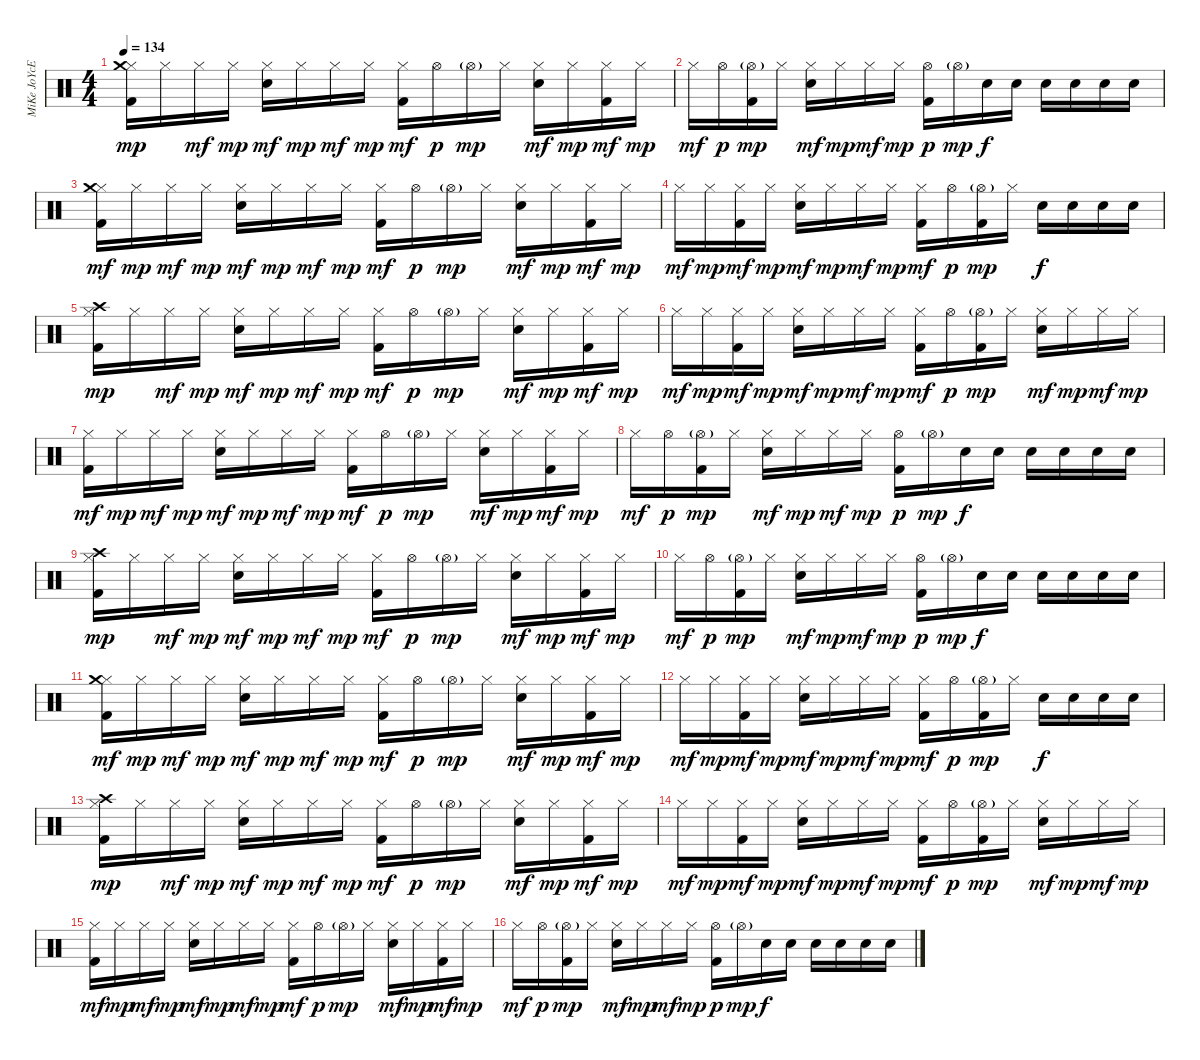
\track ("MiKe JoYcE" "MiKe JoYcE") {instrument percussion}
\staff {score}
\articulation defaults
\ts (4 4)
\tempo 134
\clef neutral
\ks c
("Hi-Hat (closed)" "Crash medium (hit)" "Kick (hit) 2").16{dy mp} "Hi-Hat (closed)".16 "Hi-Hat (closed)".16{dy mf} "Hi-Hat (closed)".16{dy mp} ("Hi-Hat (closed)" "Electric Snare (hit)").16{dy mf} "Hi-Hat (closed)".16{dy mp} "Hi-Hat (closed)".16{dy mf} "Hi-Hat (closed)".16{dy mp} ("Hi-Hat (closed)" "Kick (hit) 2").16{dy mf} "Hi-Hat (open)".16{dy p} "Hi-Hat (open)"{g}.16{dy mp} "Hi-Hat (closed)".16 ("Hi-Hat (closed)" "Electric Snare (hit)").16{dy mf} "Hi-Hat (closed)".16{dy mp} ("Hi-Hat (closed)" "Kick (hit) 2").16{dy mf} "Hi-Hat (closed)".16{dy mp} |
"Hi-Hat (closed)".16{dy mf} "Hi-Hat (open)".16{dy p} ("Hi-Hat (open)"{g} "Kick (hit) 2").16{dy mp} "Hi-Hat (closed)".16 ("Hi-Hat (closed)" "Electric Snare (hit)").16{dy mf} "Hi-Hat (closed)".16{dy mp} "Hi-Hat (closed)".16{dy mf} "Hi-Hat (closed)".16{dy mp} ("Hi-Hat (open)" "Kick (hit) 2").16{dy p} "Hi-Hat (open)"{g}.16{dy mp} "Electric Snare (hit)".16{dy f} "Electric Snare (hit)".16 "Electric Snare (hit)".16 "Electric Snare (hit)".16 "Electric Snare (hit)".16 "Electric Snare (hit)".16 |
("Hi-Hat (closed)" "Crash medium (hit)" "Kick (hit) 2").16{dy mf} "Hi-Hat (closed)".16{dy mp} "Hi-Hat (closed)".16{dy mf} "Hi-Hat (closed)".16{dy mp} ("Hi-Hat (closed)" "Electric Snare (hit)").16{dy mf} "Hi-Hat (closed)".16{dy mp} "Hi-Hat (closed)".16{dy mf} "Hi-Hat (closed)".16{dy mp} ("Hi-Hat (closed)" "Kick (hit) 2").16{dy mf} "Hi-Hat (open)".16{dy p} "Hi-Hat (open)"{g}.16{dy mp} "Hi-Hat (closed)".16 ("Hi-Hat (closed)" "Electric Snare (hit)").16{dy mf} "Hi-Hat (closed)".16{dy mp} ("Hi-Hat (closed)" "Kick (hit) 2").16{dy mf} "Hi-Hat (closed)".16{dy mp} |
"Hi-Hat (closed)".16{dy mf} "Hi-Hat (closed)".16{dy mp} ("Hi-Hat (closed)" "Kick (hit) 2").16{dy mf} "Hi-Hat (closed)".16{dy mp} ("Hi-Hat (closed)" "Electric Snare (hit)").16{dy mf} "Hi-Hat (closed)".16{dy mp} "Hi-Hat (closed)".16{dy mf} "Hi-Hat (closed)".16{dy mp} ("Hi-Hat (closed)" "Kick (hit) 2").16{dy mf} "Hi-Hat (open)".16{dy p} ("Hi-Hat (open)"{g} "Kick (hit) 2").16{dy mp} "Hi-Hat (closed)".16 "Electric Snare (hit)".16{dy f} "Electric Snare (hit)".16 "Electric Snare (hit)".16 "Electric Snare (hit)".16 |
("Hi-Hat (closed)" "Crash high (hit)" "Kick (hit) 2").16{dy mp} "Hi-Hat (closed)".16 "Hi-Hat (closed)".16{dy mf} "Hi-Hat (closed)".16{dy mp} ("Hi-Hat (closed)" "Electric Snare (hit)").16{dy mf} "Hi-Hat (closed)".16{dy mp} "Hi-Hat (closed)".16{dy mf} "Hi-Hat (closed)".16{dy mp} ("Hi-Hat (closed)" "Kick (hit) 2").16{dy mf} "Hi-Hat (open)".16{dy p} "Hi-Hat (open)"{g}.16{dy mp} "Hi-Hat (closed)".16 ("Hi-Hat (closed)" "Electric Snare (hit)").16{dy mf} "Hi-Hat (closed)".16{dy mp} ("Hi-Hat (closed)" "Kick (hit) 2").16{dy mf} "Hi-Hat (closed)".16{dy mp} |
"Hi-Hat (closed)".16{dy mf} "Hi-Hat (closed)".16{dy mp} ("Hi-Hat (closed)" "Kick (hit) 2").16{dy mf} "Hi-Hat (closed)".16{dy mp} ("Hi-Hat (closed)" "Electric Snare (hit)").16{dy mf} "Hi-Hat (closed)".16{dy mp} "Hi-Hat (closed)".16{dy mf} "Hi-Hat (closed)".16{dy mp} ("Hi-Hat (closed)" "Kick (hit) 2").16{dy mf} "Hi-Hat (open)".16{dy p} ("Hi-Hat (open)"{g} "Kick (hit) 2").16{dy mp} "Hi-Hat (closed)".16 ("Hi-Hat (closed)" "Electric Snare (hit)").16{dy mf} "Hi-Hat (closed)".16{dy mp} "Hi-Hat (closed)".16{dy mf} "Hi-Hat (closed)".16{dy mp} |
("Hi-Hat (closed)" "Kick (hit) 2").16{dy mf} "Hi-Hat (closed)".16{dy mp} "Hi-Hat (closed)".16{dy mf} "Hi-Hat (closed)".16{dy mp} ("Hi-Hat (closed)" "Electric Snare (hit)").16{dy mf} "Hi-Hat (closed)".16{dy mp} "Hi-Hat (closed)".16{dy mf} "Hi-Hat (closed)".16{dy mp} ("Hi-Hat (closed)" "Kick (hit) 2").16{dy mf} "Hi-Hat (open)".16{dy p} "Hi-Hat (open)"{g}.16{dy mp} "Hi-Hat (closed)".16 ("Hi-Hat (closed)" "Electric Snare (hit)").16{dy mf} "Hi-Hat (closed)".16{dy mp} ("Hi-Hat (closed)" "Kick (hit) 2").16{dy mf} "Hi-Hat (closed)".16{dy mp} |
"Hi-Hat (closed)".16{dy mf} "Hi-Hat (open)".16{dy p} ("Hi-Hat (open)"{g} "Kick (hit) 2").16{dy mp} "Hi-Hat (closed)".16 ("Hi-Hat (closed)" "Electric Snare (hit)").16{dy mf} "Hi-Hat (closed)".16{dy mp} "Hi-Hat (closed)".16{dy mf} "Hi-Hat (closed)".16{dy mp} ("Hi-Hat (open)" "Kick (hit) 2").16{dy p} "Hi-Hat (open)"{g}.16{dy mp} "Electric Snare (hit)".16{dy f} "Electric Snare (hit)".16 "Electric Snare (hit)".16 "Electric Snare (hit)".16 "Electric Snare (hit)".16 "Electric Snare (hit)".16 |
("Hi-Hat (closed)" "Crash high (hit)" "Kick (hit) 2").16{dy mp} "Hi-Hat (closed)".16 "Hi-Hat (closed)".16{dy mf} "Hi-Hat (closed)".16{dy mp} ("Hi-Hat (closed)" "Electric Snare (hit)").16{dy mf} "Hi-Hat (closed)".16{dy mp} "Hi-Hat (closed)".16{dy mf} "Hi-Hat (closed)".16{dy mp} ("Hi-Hat (closed)" "Kick (hit) 2").16{dy mf} "Hi-Hat (open)".16{dy p} "Hi-Hat (open)"{g}.16{dy mp} "Hi-Hat (closed)".16 ("Hi-Hat (closed)" "Electric Snare (hit)").16{dy mf} "Hi-Hat (closed)".16{dy mp} ("Hi-Hat (closed)" "Kick (hit) 2").16{dy mf} "Hi-Hat (closed)".16{dy mp} |
"Hi-Hat (closed)".16{dy mf} "Hi-Hat (open)".16{dy p} ("Hi-Hat (open)"{g} "Kick (hit) 2").16{dy mp} "Hi-Hat (closed)".16 ("Hi-Hat (closed)" "Electric Snare (hit)").16{dy mf} "Hi-Hat (closed)".16{dy mp} "Hi-Hat (closed)".16{dy mf} "Hi-Hat (closed)".16{dy mp} ("Hi-Hat (open)" "Kick (hit) 2").16{dy p} "Hi-Hat (open)"{g}.16{dy mp} "Electric Snare (hit)".16{dy f} "Electric Snare (hit)".16 "Electric Snare (hit)".16 "Electric Snare (hit)".16 "Electric Snare (hit)".16 "Electric Snare (hit)".16 |
("Hi-Hat (closed)" "Crash medium (hit)" "Kick (hit) 2").16{dy mf} "Hi-Hat (closed)".16{dy mp} "Hi-Hat (closed)".16{dy mf} "Hi-Hat (closed)".16{dy mp} ("Hi-Hat (closed)" "Electric Snare (hit)").16{dy mf} "Hi-Hat (closed)".16{dy mp} "Hi-Hat (closed)".16{dy mf} "Hi-Hat (closed)".16{dy mp} ("Hi-Hat (closed)" "Kick (hit) 2").16{dy mf} "Hi-Hat (open)".16{dy p} "Hi-Hat (open)"{g}.16{dy mp} "Hi-Hat (closed)".16 ("Hi-Hat (closed)" "Electric Snare (hit)").16{dy mf} "Hi-Hat (closed)".16{dy mp} ("Hi-Hat (closed)" "Kick (hit) 2").16{dy mf} "Hi-Hat (closed)".16{dy mp} |
"Hi-Hat (closed)".16{dy mf} "Hi-Hat (closed)".16{dy mp} ("Hi-Hat (closed)" "Kick (hit) 2").16{dy mf} "Hi-Hat (closed)".16{dy mp} ("Hi-Hat (closed)" "Electric Snare (hit)").16{dy mf} "Hi-Hat (closed)".16{dy mp} "Hi-Hat (closed)".16{dy mf} "Hi-Hat (closed)".16{dy mp} ("Hi-Hat (closed)" "Kick (hit) 2").16{dy mf} "Hi-Hat (open)".16{dy p} ("Hi-Hat (open)"{g} "Kick (hit) 2").16{dy mp} "Hi-Hat (closed)".16 "Electric Snare (hit)".16{dy f} "Electric Snare (hit)".16 "Electric Snare (hit)".16 "Electric Snare (hit)".16 |
("Hi-Hat (closed)" "Crash high (hit)" "Kick (hit) 2").16{dy mp} "Hi-Hat (closed)".16 "Hi-Hat (closed)".16{dy mf} "Hi-Hat (closed)".16{dy mp} ("Hi-Hat (closed)" "Electric Snare (hit)").16{dy mf} "Hi-Hat (closed)".16{dy mp} "Hi-Hat (closed)".16{dy mf} "Hi-Hat (closed)".16{dy mp} ("Hi-Hat (closed)" "Kick (hit) 2").16{dy mf} "Hi-Hat (open)".16{dy p} "Hi-Hat (open)"{g}.16{dy mp} "Hi-Hat (closed)".16 ("Hi-Hat (closed)" "Electric Snare (hit)").16{dy mf} "Hi-Hat (closed)".16{dy mp} ("Hi-Hat (closed)" "Kick (hit) 2").16{dy mf} "Hi-Hat (closed)".16{dy mp} |
"Hi-Hat (closed)".16{dy mf} "Hi-Hat (closed)".16{dy mp} ("Hi-Hat (closed)" "Kick (hit) 2").16{dy mf} "Hi-Hat (closed)".16{dy mp} ("Hi-Hat (closed)" "Electric Snare (hit)").16{dy mf} "Hi-Hat (closed)".16{dy mp} "Hi-Hat (closed)".16{dy mf} "Hi-Hat (closed)".16{dy mp} ("Hi-Hat (closed)" "Kick (hit) 2").16{dy mf} "Hi-Hat (open)".16{dy p} ("Hi-Hat (open)"{g} "Kick (hit) 2").16{dy mp} "Hi-Hat (closed)".16 ("Hi-Hat (closed)" "Electric Snare (hit)").16{dy mf} "Hi-Hat (closed)".16{dy mp} "Hi-Hat (closed)".16{dy mf} "Hi-Hat (closed)".16{dy mp} |
("Hi-Hat (closed)" "Kick (hit) 2").16{dy mf} "Hi-Hat (closed)".16{dy mp} "Hi-Hat (closed)".16{dy mf} "Hi-Hat (closed)".16{dy mp} ("Hi-Hat (closed)" "Electric Snare (hit)").16{dy mf} "Hi-Hat (closed)".16{dy mp} "Hi-Hat (closed)".16{dy mf} "Hi-Hat (closed)".16{dy mp} ("Hi-Hat (closed)" "Kick (hit) 2").16{dy mf} "Hi-Hat (open)".16{dy p} "Hi-Hat (open)"{g}.16{dy mp} "Hi-Hat (closed)".16 ("Hi-Hat (closed)" "Electric Snare (hit)").16{dy mf} "Hi-Hat (closed)".16{dy mp} ("Hi-Hat (closed)" "Kick (hit) 2").16{dy mf} "Hi-Hat (closed)".16{dy mp} |
"Hi-Hat (closed)".16{dy mf} "Hi-Hat (open)".16{dy p} ("Hi-Hat (open)"{g} "Kick (hit) 2").16{dy mp} "Hi-Hat (closed)".16 ("Hi-Hat (closed)" "Electric Snare (hit)").16{dy mf} "Hi-Hat (closed)".16{dy mp} "Hi-Hat (closed)".16{dy mf} "Hi-Hat (closed)".16{dy mp} ("Hi-Hat (open)" "Kick (hit) 2").16{dy p} "Hi-Hat (open)"{g}.16{dy mp} "Electric Snare (hit)".16{dy f} "Electric Snare (hit)".16 "Electric Snare (hit)".16 "Electric Snare (hit)".16 "Electric Snare (hit)".16 "Electric Snare (hit)".16
